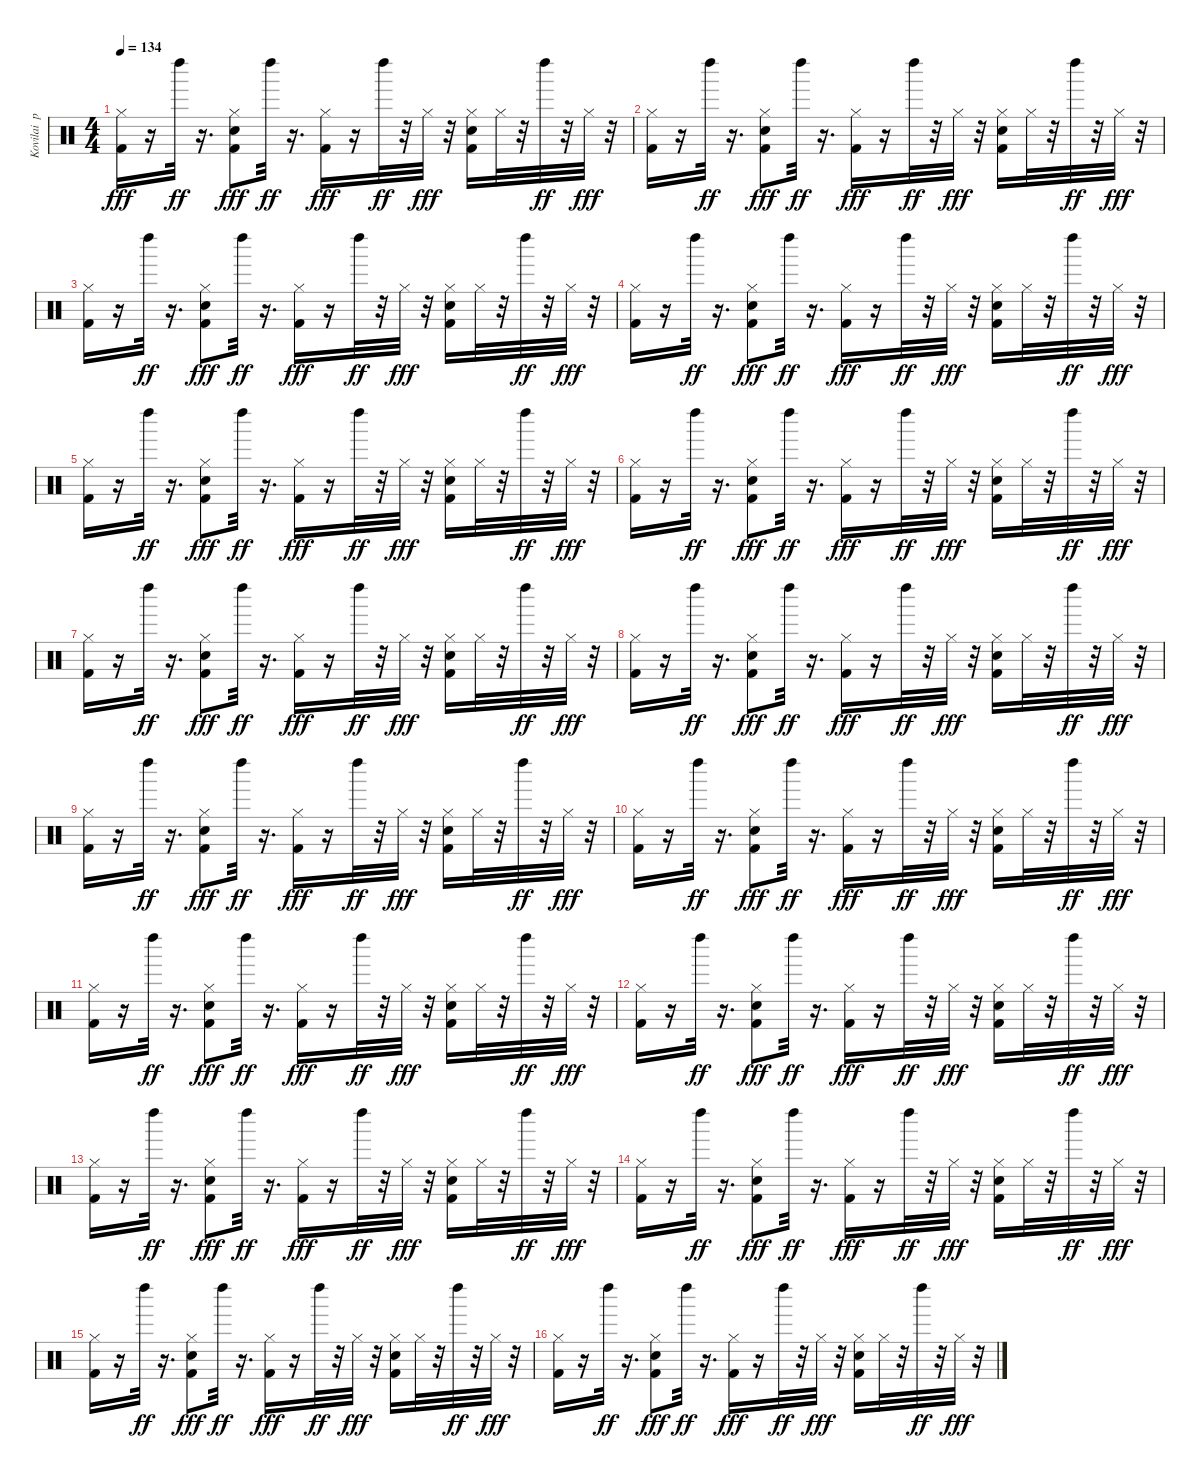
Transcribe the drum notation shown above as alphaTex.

\track ("Kovilai  po tihonechky:" "Kovilai  p") {instrument percussion}
\staff {score}
\articulation defaults
\ts (4 4)
\tempo 134
\clef neutral
\ks c
("Hi-Hat (closed)" "Kick (hit) 2").16{dy fff} r.16 "Left Maraca (hit)".32{dy ff} r.16{d} ("Snare (hit) 2" "Hi-Hat (closed)" "Kick (hit) 2").8{dy fff} "Left Maraca (hit)".32{dy ff} r.16{d} ("Hi-Hat (closed)" "Kick (hit) 2").16{dy fff} r.16 "Left Maraca (hit)".32{dy ff} r.32 "Hi-Hat (closed)".32{dy fff} r.32 ("Hi-Hat (closed)" "Snare (hit) 2" "Kick (hit) 2").16 "Hi-Hat (closed)".32 r.32 "Left Maraca (hit)".32{dy ff} r.32 "Hi-Hat (closed)".32{dy fff} r.32 |
("Hi-Hat (closed)" "Kick (hit) 2").16 r.16 "Left Maraca (hit)".32{dy ff} r.16{d} ("Snare (hit) 2" "Hi-Hat (closed)" "Kick (hit) 2").8{dy fff} "Left Maraca (hit)".32{dy ff} r.16{d} ("Hi-Hat (closed)" "Kick (hit) 2").16{dy fff} r.16 "Left Maraca (hit)".32{dy ff} r.32 "Hi-Hat (closed)".32{dy fff} r.32 ("Hi-Hat (closed)" "Snare (hit) 2" "Kick (hit) 2").16 "Hi-Hat (closed)".32 r.32 "Left Maraca (hit)".32{dy ff} r.32 "Hi-Hat (closed)".32{dy fff} r.32 |
("Hi-Hat (closed)" "Kick (hit) 2").16 r.16 "Left Maraca (hit)".32{dy ff} r.16{d} ("Snare (hit) 2" "Hi-Hat (closed)" "Kick (hit) 2").8{dy fff} "Left Maraca (hit)".32{dy ff} r.16{d} ("Hi-Hat (closed)" "Kick (hit) 2").16{dy fff} r.16 "Left Maraca (hit)".32{dy ff} r.32 "Hi-Hat (closed)".32{dy fff} r.32 ("Hi-Hat (closed)" "Snare (hit) 2" "Kick (hit) 2").16 "Hi-Hat (closed)".32 r.32 "Left Maraca (hit)".32{dy ff} r.32 "Hi-Hat (closed)".32{dy fff} r.32 |
("Hi-Hat (closed)" "Kick (hit) 2").16 r.16 "Left Maraca (hit)".32{dy ff} r.16{d} ("Snare (hit) 2" "Hi-Hat (closed)" "Kick (hit) 2").8{dy fff} "Left Maraca (hit)".32{dy ff} r.16{d} ("Hi-Hat (closed)" "Kick (hit) 2").16{dy fff} r.16 "Left Maraca (hit)".32{dy ff} r.32 "Hi-Hat (closed)".32{dy fff} r.32 ("Hi-Hat (closed)" "Snare (hit) 2" "Kick (hit) 2").16 "Hi-Hat (closed)".32 r.32 "Left Maraca (hit)".32{dy ff} r.32 "Hi-Hat (closed)".32{dy fff} r.32 |
("Hi-Hat (closed)" "Kick (hit) 2").16 r.16 "Left Maraca (hit)".32{dy ff} r.16{d} ("Snare (hit) 2" "Hi-Hat (closed)" "Kick (hit) 2").8{dy fff} "Left Maraca (hit)".32{dy ff} r.16{d} ("Hi-Hat (closed)" "Kick (hit) 2").16{dy fff} r.16 "Left Maraca (hit)".32{dy ff} r.32 "Hi-Hat (closed)".32{dy fff} r.32 ("Hi-Hat (closed)" "Snare (hit) 2" "Kick (hit) 2").16 "Hi-Hat (closed)".32 r.32 "Left Maraca (hit)".32{dy ff} r.32 "Hi-Hat (closed)".32{dy fff} r.32 |
("Hi-Hat (closed)" "Kick (hit) 2").16 r.16 "Left Maraca (hit)".32{dy ff} r.16{d} ("Snare (hit) 2" "Hi-Hat (closed)" "Kick (hit) 2").8{dy fff} "Left Maraca (hit)".32{dy ff} r.16{d} ("Hi-Hat (closed)" "Kick (hit) 2").16{dy fff} r.16 "Left Maraca (hit)".32{dy ff} r.32 "Hi-Hat (closed)".32{dy fff} r.32 ("Hi-Hat (closed)" "Snare (hit) 2" "Kick (hit) 2").16 "Hi-Hat (closed)".32 r.32 "Left Maraca (hit)".32{dy ff} r.32 "Hi-Hat (closed)".32{dy fff} r.32 |
("Hi-Hat (closed)" "Kick (hit) 2").16 r.16 "Left Maraca (hit)".32{dy ff} r.16{d} ("Snare (hit) 2" "Hi-Hat (closed)" "Kick (hit) 2").8{dy fff} "Left Maraca (hit)".32{dy ff} r.16{d} ("Hi-Hat (closed)" "Kick (hit) 2").16{dy fff} r.16 "Left Maraca (hit)".32{dy ff} r.32 "Hi-Hat (closed)".32{dy fff} r.32 ("Hi-Hat (closed)" "Snare (hit) 2" "Kick (hit) 2").16 "Hi-Hat (closed)".32 r.32 "Left Maraca (hit)".32{dy ff} r.32 "Hi-Hat (closed)".32{dy fff} r.32 |
("Hi-Hat (closed)" "Kick (hit) 2").16 r.16 "Left Maraca (hit)".32{dy ff} r.16{d} ("Snare (hit) 2" "Hi-Hat (closed)" "Kick (hit) 2").8{dy fff} "Left Maraca (hit)".32{dy ff} r.16{d} ("Hi-Hat (closed)" "Kick (hit) 2").16{dy fff} r.16 "Left Maraca (hit)".32{dy ff} r.32 "Hi-Hat (closed)".32{dy fff} r.32 ("Hi-Hat (closed)" "Snare (hit) 2" "Kick (hit) 2").16 "Hi-Hat (closed)".32 r.32 "Left Maraca (hit)".32{dy ff} r.32 "Hi-Hat (closed)".32{dy fff} r.32 |
("Hi-Hat (closed)" "Kick (hit) 2").16 r.16 "Left Maraca (hit)".32{dy ff} r.16{d} ("Snare (hit) 2" "Hi-Hat (closed)" "Kick (hit) 2").8{dy fff} "Left Maraca (hit)".32{dy ff} r.16{d} ("Hi-Hat (closed)" "Kick (hit) 2").16{dy fff} r.16 "Left Maraca (hit)".32{dy ff} r.32 "Hi-Hat (closed)".32{dy fff} r.32 ("Hi-Hat (closed)" "Snare (hit) 2" "Kick (hit) 2").16 "Hi-Hat (closed)".32 r.32 "Left Maraca (hit)".32{dy ff} r.32 "Hi-Hat (closed)".32{dy fff} r.32 |
("Hi-Hat (closed)" "Kick (hit) 2").16 r.16 "Left Maraca (hit)".32{dy ff} r.16{d} ("Snare (hit) 2" "Hi-Hat (closed)" "Kick (hit) 2").8{dy fff} "Left Maraca (hit)".32{dy ff} r.16{d} ("Hi-Hat (closed)" "Kick (hit) 2").16{dy fff} r.16 "Left Maraca (hit)".32{dy ff} r.32 "Hi-Hat (closed)".32{dy fff} r.32 ("Hi-Hat (closed)" "Snare (hit) 2" "Kick (hit) 2").16 "Hi-Hat (closed)".32 r.32 "Left Maraca (hit)".32{dy ff} r.32 "Hi-Hat (closed)".32{dy fff} r.32 |
("Hi-Hat (closed)" "Kick (hit) 2").16 r.16 "Left Maraca (hit)".32{dy ff} r.16{d} ("Snare (hit) 2" "Hi-Hat (closed)" "Kick (hit) 2").8{dy fff} "Left Maraca (hit)".32{dy ff} r.16{d} ("Hi-Hat (closed)" "Kick (hit) 2").16{dy fff} r.16 "Left Maraca (hit)".32{dy ff} r.32 "Hi-Hat (closed)".32{dy fff} r.32 ("Hi-Hat (closed)" "Snare (hit) 2" "Kick (hit) 2").16 "Hi-Hat (closed)".32 r.32 "Left Maraca (hit)".32{dy ff} r.32 "Hi-Hat (closed)".32{dy fff} r.32 |
("Hi-Hat (closed)" "Kick (hit) 2").16 r.16 "Left Maraca (hit)".32{dy ff} r.16{d} ("Snare (hit) 2" "Hi-Hat (closed)" "Kick (hit) 2").8{dy fff} "Left Maraca (hit)".32{dy ff} r.16{d} ("Hi-Hat (closed)" "Kick (hit) 2").16{dy fff} r.16 "Left Maraca (hit)".32{dy ff} r.32 "Hi-Hat (closed)".32{dy fff} r.32 ("Hi-Hat (closed)" "Snare (hit) 2" "Kick (hit) 2").16 "Hi-Hat (closed)".32 r.32 "Left Maraca (hit)".32{dy ff} r.32 "Hi-Hat (closed)".32{dy fff} r.32 |
("Hi-Hat (closed)" "Kick (hit) 2").16 r.16 "Left Maraca (hit)".32{dy ff} r.16{d} ("Snare (hit) 2" "Hi-Hat (closed)" "Kick (hit) 2").8{dy fff} "Left Maraca (hit)".32{dy ff} r.16{d} ("Hi-Hat (closed)" "Kick (hit) 2").16{dy fff} r.16 "Left Maraca (hit)".32{dy ff} r.32 "Hi-Hat (closed)".32{dy fff} r.32 ("Hi-Hat (closed)" "Snare (hit) 2" "Kick (hit) 2").16 "Hi-Hat (closed)".32 r.32 "Left Maraca (hit)".32{dy ff} r.32 "Hi-Hat (closed)".32{dy fff} r.32 |
("Hi-Hat (closed)" "Kick (hit) 2").16 r.16 "Left Maraca (hit)".32{dy ff} r.16{d} ("Snare (hit) 2" "Hi-Hat (closed)" "Kick (hit) 2").8{dy fff} "Left Maraca (hit)".32{dy ff} r.16{d} ("Hi-Hat (closed)" "Kick (hit) 2").16{dy fff} r.16 "Left Maraca (hit)".32{dy ff} r.32 "Hi-Hat (closed)".32{dy fff} r.32 ("Hi-Hat (closed)" "Snare (hit) 2" "Kick (hit) 2").16 "Hi-Hat (closed)".32 r.32 "Left Maraca (hit)".32{dy ff} r.32 "Hi-Hat (closed)".32{dy fff} r.32 |
("Hi-Hat (closed)" "Kick (hit) 2").16 r.16 "Left Maraca (hit)".32{dy ff} r.16{d} ("Snare (hit) 2" "Hi-Hat (closed)" "Kick (hit) 2").8{dy fff} "Left Maraca (hit)".32{dy ff} r.16{d} ("Hi-Hat (closed)" "Kick (hit) 2").16{dy fff} r.16 "Left Maraca (hit)".32{dy ff} r.32 "Hi-Hat (closed)".32{dy fff} r.32 ("Hi-Hat (closed)" "Snare (hit) 2" "Kick (hit) 2").16 "Hi-Hat (closed)".32 r.32 "Left Maraca (hit)".32{dy ff} r.32 "Hi-Hat (closed)".32{dy fff} r.32 |
("Hi-Hat (closed)" "Kick (hit) 2").16 r.16 "Left Maraca (hit)".32{dy ff} r.16{d} ("Snare (hit) 2" "Hi-Hat (closed)" "Kick (hit) 2").8{dy fff} "Left Maraca (hit)".32{dy ff} r.16{d} ("Hi-Hat (closed)" "Kick (hit) 2").16{dy fff} r.16 "Left Maraca (hit)".32{dy ff} r.32 "Hi-Hat (closed)".32{dy fff} r.32 ("Hi-Hat (closed)" "Snare (hit) 2" "Kick (hit) 2").16 "Hi-Hat (closed)".32 r.32 "Left Maraca (hit)".32{dy ff} r.32 "Hi-Hat (closed)".32{dy fff} r.32
